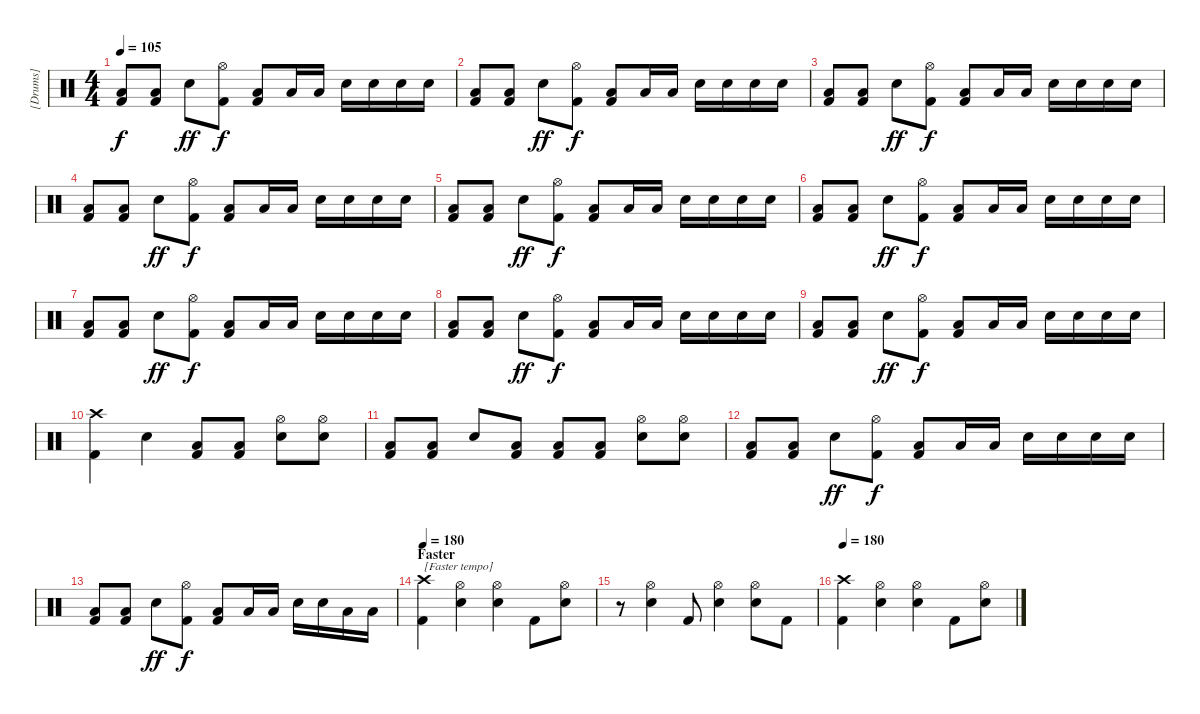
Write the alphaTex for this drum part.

\track ("[Drums]" "[Drums]") {instrument percussion}
\staff {score}
\articulation defaults
\ts (4 4)
\tempo 105
\clef neutral
\ks c
("Low Floor Tom (hit)" "Kick (hit) 2").8{dy f} ("Low Floor Tom (hit)" "Kick (hit) 2").8 "Snare (hit) 2".8{dy ff} ("Hi-Hat (open)" "Kick (hit) 2").8{dy f} ("Low Floor Tom (hit)" "Kick (hit) 2").8 "Low Floor Tom (hit)".16 "Low Floor Tom (hit)".16 "Snare (hit) 2".16 "Snare (hit) 2".16 "Snare (hit) 2".16 "Snare (hit) 2".16 |
("Low Floor Tom (hit)" "Kick (hit) 2").8 ("Low Floor Tom (hit)" "Kick (hit) 2").8 "Snare (hit) 2".8{dy ff} ("Hi-Hat (open)" "Kick (hit) 2").8{dy f} ("Low Floor Tom (hit)" "Kick (hit) 2").8 "Low Floor Tom (hit)".16 "Low Floor Tom (hit)".16 "Snare (hit) 2".16 "Snare (hit) 2".16 "Snare (hit) 2".16 "Snare (hit) 2".16 |
("Low Floor Tom (hit)" "Kick (hit) 2").8 ("Low Floor Tom (hit)" "Kick (hit) 2").8 "Snare (hit) 2".8{dy ff} ("Hi-Hat (open)" "Kick (hit) 2").8{dy f} ("Low Floor Tom (hit)" "Kick (hit) 2").8 "Low Floor Tom (hit)".16 "Low Floor Tom (hit)".16 "Snare (hit) 2".16 "Snare (hit) 2".16 "Snare (hit) 2".16 "Snare (hit) 2".16 |
("Low Floor Tom (hit)" "Kick (hit) 2").8 ("Low Floor Tom (hit)" "Kick (hit) 2").8 "Snare (hit) 2".8{dy ff} ("Hi-Hat (open)" "Kick (hit) 2").8{dy f} ("Low Floor Tom (hit)" "Kick (hit) 2").8 "Low Floor Tom (hit)".16 "Low Floor Tom (hit)".16 "Snare (hit) 2".16 "Snare (hit) 2".16 "Snare (hit) 2".16 "Snare (hit) 2".16 |
("Low Floor Tom (hit)" "Kick (hit) 2").8 ("Low Floor Tom (hit)" "Kick (hit) 2").8 "Snare (hit) 2".8{dy ff} ("Hi-Hat (open)" "Kick (hit) 2").8{dy f} ("Low Floor Tom (hit)" "Kick (hit) 2").8 "Low Floor Tom (hit)".16 "Low Floor Tom (hit)".16 "Snare (hit) 2".16 "Snare (hit) 2".16 "Snare (hit) 2".16 "Snare (hit) 2".16 |
("Low Floor Tom (hit)" "Kick (hit) 2").8 ("Low Floor Tom (hit)" "Kick (hit) 2").8 "Snare (hit) 2".8{dy ff} ("Hi-Hat (open)" "Kick (hit) 2").8{dy f} ("Low Floor Tom (hit)" "Kick (hit) 2").8 "Low Floor Tom (hit)".16 "Low Floor Tom (hit)".16 "Snare (hit) 2".16 "Snare (hit) 2".16 "Snare (hit) 2".16 "Snare (hit) 2".16 |
("Low Floor Tom (hit)" "Kick (hit) 2").8 ("Low Floor Tom (hit)" "Kick (hit) 2").8 "Snare (hit) 2".8{dy ff} ("Hi-Hat (open)" "Kick (hit) 2").8{dy f} ("Low Floor Tom (hit)" "Kick (hit) 2").8 "Low Floor Tom (hit)".16 "Low Floor Tom (hit)".16 "Snare (hit) 2".16 "Snare (hit) 2".16 "Snare (hit) 2".16 "Snare (hit) 2".16 |
("Low Floor Tom (hit)" "Kick (hit) 2").8 ("Low Floor Tom (hit)" "Kick (hit) 2").8 "Snare (hit) 2".8{dy ff} ("Hi-Hat (open)" "Kick (hit) 2").8{dy f} ("Low Floor Tom (hit)" "Kick (hit) 2").8 "Low Floor Tom (hit)".16 "Low Floor Tom (hit)".16 "Snare (hit) 2".16 "Snare (hit) 2".16 "Snare (hit) 2".16 "Snare (hit) 2".16 |
("Low Floor Tom (hit)" "Kick (hit) 2").8 ("Low Floor Tom (hit)" "Kick (hit) 2").8 "Snare (hit) 2".8{dy ff} ("Hi-Hat (open)" "Kick (hit) 2").8{dy f} ("Low Floor Tom (hit)" "Kick (hit) 2").8 "Low Floor Tom (hit)".16 "Low Floor Tom (hit)".16 "Snare (hit) 2".16 "Snare (hit) 2".16 "Snare (hit) 2".16 "Snare (hit) 2".16 |
\section ("" "")
("Crash high (hit)" "Kick (hit) 2").4 "Snare (hit) 2".4 ("Low Floor Tom (hit)" "Kick (hit) 2").8 ("Low Floor Tom (hit)" "Kick (hit) 2").8 ("Hi-Hat (open)" "Snare (hit) 2").8 ("Hi-Hat (open)" "Snare (hit) 2").8 |
("Low Floor Tom (hit)" "Kick (hit) 2").8 ("Low Floor Tom (hit)" "Kick (hit) 2").8 "Snare (hit) 2".8 ("Low Floor Tom (hit)" "Kick (hit) 2").8 ("Low Floor Tom (hit)" "Kick (hit) 2").8 ("Low Floor Tom (hit)" "Kick (hit) 2").8 ("Hi-Hat (open)" "Snare (hit) 2").8 ("Hi-Hat (open)" "Snare (hit) 2").8 |
\section ("" "")
("Low Floor Tom (hit)" "Kick (hit) 2").8 ("Low Floor Tom (hit)" "Kick (hit) 2").8 "Snare (hit) 2".8{dy ff} ("Hi-Hat (open)" "Kick (hit) 2").8{dy f} ("Low Floor Tom (hit)" "Kick (hit) 2").8 "Low Floor Tom (hit)".16 "Low Floor Tom (hit)".16 "Snare (hit) 2".16 "Snare (hit) 2".16 "Snare (hit) 2".16 "Snare (hit) 2".16 |
("Low Floor Tom (hit)" "Kick (hit) 2").8 ("Low Floor Tom (hit)" "Kick (hit) 2").8 "Snare (hit) 2".8{dy ff} ("Hi-Hat (open)" "Kick (hit) 2").8{dy f} ("Low Floor Tom (hit)" "Kick (hit) 2").8 "Low Floor Tom (hit)".16 "Low Floor Tom (hit)".16 "Snare (hit) 2".16 "Snare (hit) 2".16 "Low Floor Tom (hit)".16 "Low Floor Tom (hit)".16 |
\section ("" "Faster")
\tempo 170
\tempo 180
("Crash high (hit)" "Kick (hit) 2").4{txt "[Faster tempo]"} ("Hi-Hat (open)" "Snare (hit) 2").4 ("Hi-Hat (open)" "Snare (hit) 2").4 "Kick (hit) 2".8 ("Hi-Hat (open)" "Snare (hit) 2").8 |
r.8 ("Hi-Hat (open)" "Snare (hit) 2").4 "Kick (hit) 2".8 ("Hi-Hat (open)" "Snare (hit) 2").4 ("Hi-Hat (open)" "Snare (hit) 2").8 "Kick (hit) 2".8 |
\tempo 180
("Crash high (hit)" "Kick (hit) 2").4 ("Hi-Hat (open)" "Snare (hit) 2").4 ("Hi-Hat (open)" "Snare (hit) 2").4 "Kick (hit) 2".8 ("Hi-Hat (open)" "Snare (hit) 2").8
